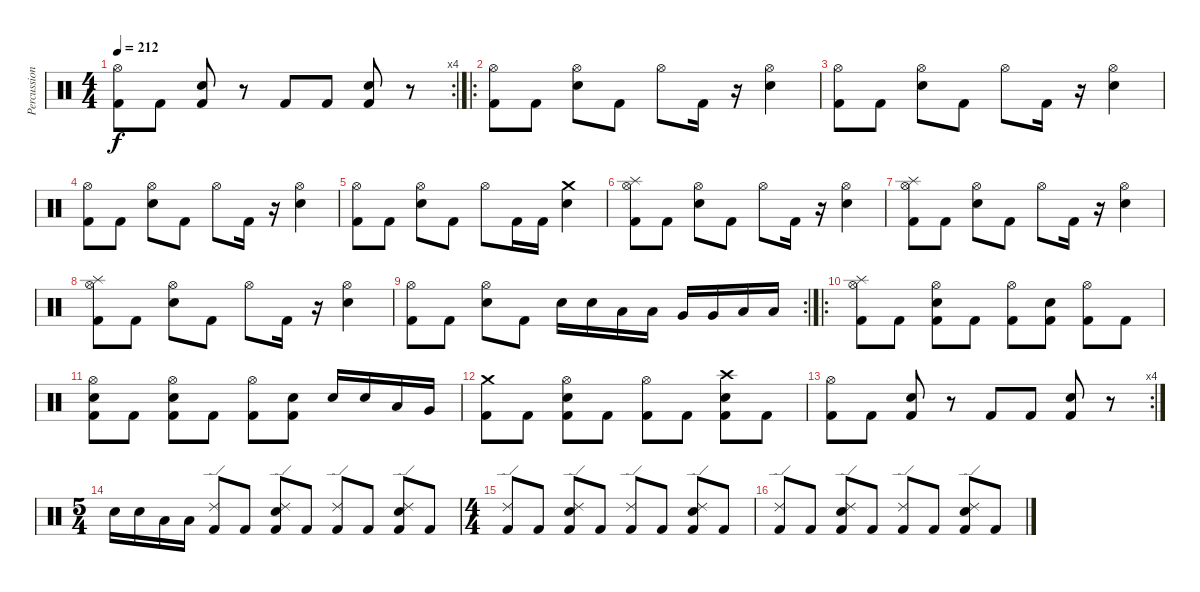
\track ("Percussions" "Percussion") {instrument percussion}
\staff {score}
\articulation defaults
\rc 4
\ts (4 4)
\tempo 212
\clef neutral
\ks c
("Hi-Hat (open)" "Kick (hit) 2").8{dy f} "Kick (hit) 2".8 ("Snare (hit) 2" "Kick (hit) 2").8 r.8 "Kick (hit) 2".8 "Kick (hit) 2".8 ("Snare (hit) 2" "Kick (hit) 2").8 r.8 |
\ro
("Hi-Hat (open)" "Kick (hit) 2").8 "Kick (hit) 2".8 ("Hi-Hat (open)" "Snare (hit) 2").8 "Kick (hit) 2".8 "Hi-Hat (open)".8 "Kick (hit) 2".16 r.16 ("Hi-Hat (open)" "Snare (hit) 2").4 |
("Hi-Hat (open)" "Kick (hit) 2").8 "Kick (hit) 2".8 ("Hi-Hat (open)" "Snare (hit) 2").8 "Kick (hit) 2".8 "Hi-Hat (open)".8 "Kick (hit) 2".16 r.16 ("Hi-Hat (open)" "Snare (hit) 2").4 |
("Hi-Hat (open)" "Kick (hit) 2").8 "Kick (hit) 2".8 ("Hi-Hat (open)" "Snare (hit) 2").8 "Kick (hit) 2".8 "Hi-Hat (open)".8 "Kick (hit) 2".16 r.16 ("Hi-Hat (open)" "Snare (hit) 2").4 |
("Hi-Hat (open)" "Kick (hit) 2").8 "Kick (hit) 2".8 ("Hi-Hat (open)" "Snare (hit) 2").8 "Kick (hit) 2".8 "Hi-Hat (open)".8 "Kick (hit) 2".16 "Kick (hit) 2".16 ("Crash medium (hit)" "Snare (hit) 2").4 |
("Hi-Hat (open)" "Splash (hit)" "Kick (hit) 2").8 "Kick (hit) 2".8 ("Hi-Hat (open)" "Snare (hit) 2").8 "Kick (hit) 2".8 "Hi-Hat (open)".8 "Kick (hit) 2".16 r.16 ("Hi-Hat (open)" "Snare (hit) 2").4 |
("Hi-Hat (open)" "Splash (hit)" "Kick (hit) 2").8 "Kick (hit) 2".8 ("Hi-Hat (open)" "Snare (hit) 2").8 "Kick (hit) 2".8 "Hi-Hat (open)".8 "Kick (hit) 2".16 r.16 ("Hi-Hat (open)" "Snare (hit) 2").4 |
("Hi-Hat (open)" "Splash (hit)" "Kick (hit) 2").8 "Kick (hit) 2".8 ("Hi-Hat (open)" "Snare (hit) 2").8 "Kick (hit) 2".8 "Hi-Hat (open)".8 "Kick (hit) 2".16 r.16 ("Hi-Hat (open)" "Snare (hit) 2").4 |
\rc 2
("Hi-Hat (open)" "Kick (hit) 2").8 "Kick (hit) 2".8 ("Hi-Hat (open)" "Snare (hit) 2").8 "Kick (hit) 2".8 "Snare (hit) 2".16 "Snare (hit) 2".16 "Low Tom (hit)".16 "Low Tom (hit)".16 "Very Low Tom (hit)".16 "Very Low Tom (hit)".16 "Low Floor Tom (hit)".16 "Low Floor Tom (hit)".16 |
\ro
("Hi-Hat (open)" "Splash (hit)" "Kick (hit) 2").8 "Kick (hit) 2".8 ("Hi-Hat (open)" "Snare (hit) 2" "Kick (hit) 2").8 "Kick (hit) 2".8 ("Hi-Hat (open)" "Kick (hit) 2").8 ("Snare (hit) 2" "Kick (hit) 2").8 ("Hi-Hat (open)" "Kick (hit) 2").8 "Kick (hit) 2".8 |
("Hi-Hat (open)" "Snare (hit) 2" "Kick (hit) 2").8 "Kick (hit) 2".8 ("Hi-Hat (open)" "Snare (hit) 2" "Kick (hit) 2").8 "Kick (hit) 2".8 ("Hi-Hat (open)" "Kick (hit) 2").8 ("Snare (hit) 2" "Kick (hit) 2").8 "Snare (hit) 2".16 "Snare (hit) 2".16 "Low Tom (hit)".16 "Very Low Tom (hit)".16 |
("Crash medium (hit)" "Kick (hit) 2").8 "Kick (hit) 2".8 ("Hi-Hat (open)" "Snare (hit) 2" "Kick (hit) 2").8 "Kick (hit) 2".8 ("Hi-Hat (open)" "Kick (hit) 2").8 "Kick (hit) 2".8 ("Crash high (hit)" "Snare (hit) 2" "Kick (hit) 2").8 "Kick (hit) 2".8 |
\rc 4
("Hi-Hat (open)" "Kick (hit) 2").8 "Kick (hit) 2".8 ("Snare (hit) 2" "Kick (hit) 2").8 r.8 "Kick (hit) 2".8 "Kick (hit) 2".8 ("Snare (hit) 2" "Kick (hit) 2").8 r.8 |
\ts (5 4)
"Snare (hit) 2".16 "Snare (hit) 2".16 "Low Tom (hit)".16 "Low Tom (hit)".16 ("Ride (edge) 2" "Kick (hit) 2").8 "Kick (hit) 2".8 ("Ride (edge) 2" "Snare (hit) 2" "Kick (hit) 2").8 "Kick (hit) 2".8 ("Ride (edge) 2" "Kick (hit) 2").8 "Kick (hit) 2".8 ("Ride (edge) 2" "Snare (hit) 2" "Kick (hit) 2").8 "Kick (hit) 2".8 |
\ts (4 4)
("Ride (edge) 2" "Kick (hit) 2").8 "Kick (hit) 2".8 ("Ride (edge) 2" "Snare (hit) 2" "Kick (hit) 2").8 "Kick (hit) 2".8 ("Ride (edge) 2" "Kick (hit) 2").8 "Kick (hit) 2".8 ("Ride (edge) 2" "Snare (hit) 2" "Kick (hit) 2").8 "Kick (hit) 2".8 |
("Ride (edge) 2" "Kick (hit) 2").8 "Kick (hit) 2".8 ("Ride (edge) 2" "Snare (hit) 2" "Kick (hit) 2").8 "Kick (hit) 2".8 ("Ride (edge) 2" "Kick (hit) 2").8 "Kick (hit) 2".8 ("Ride (edge) 2" "Snare (hit) 2" "Kick (hit) 2").8 "Kick (hit) 2".8
